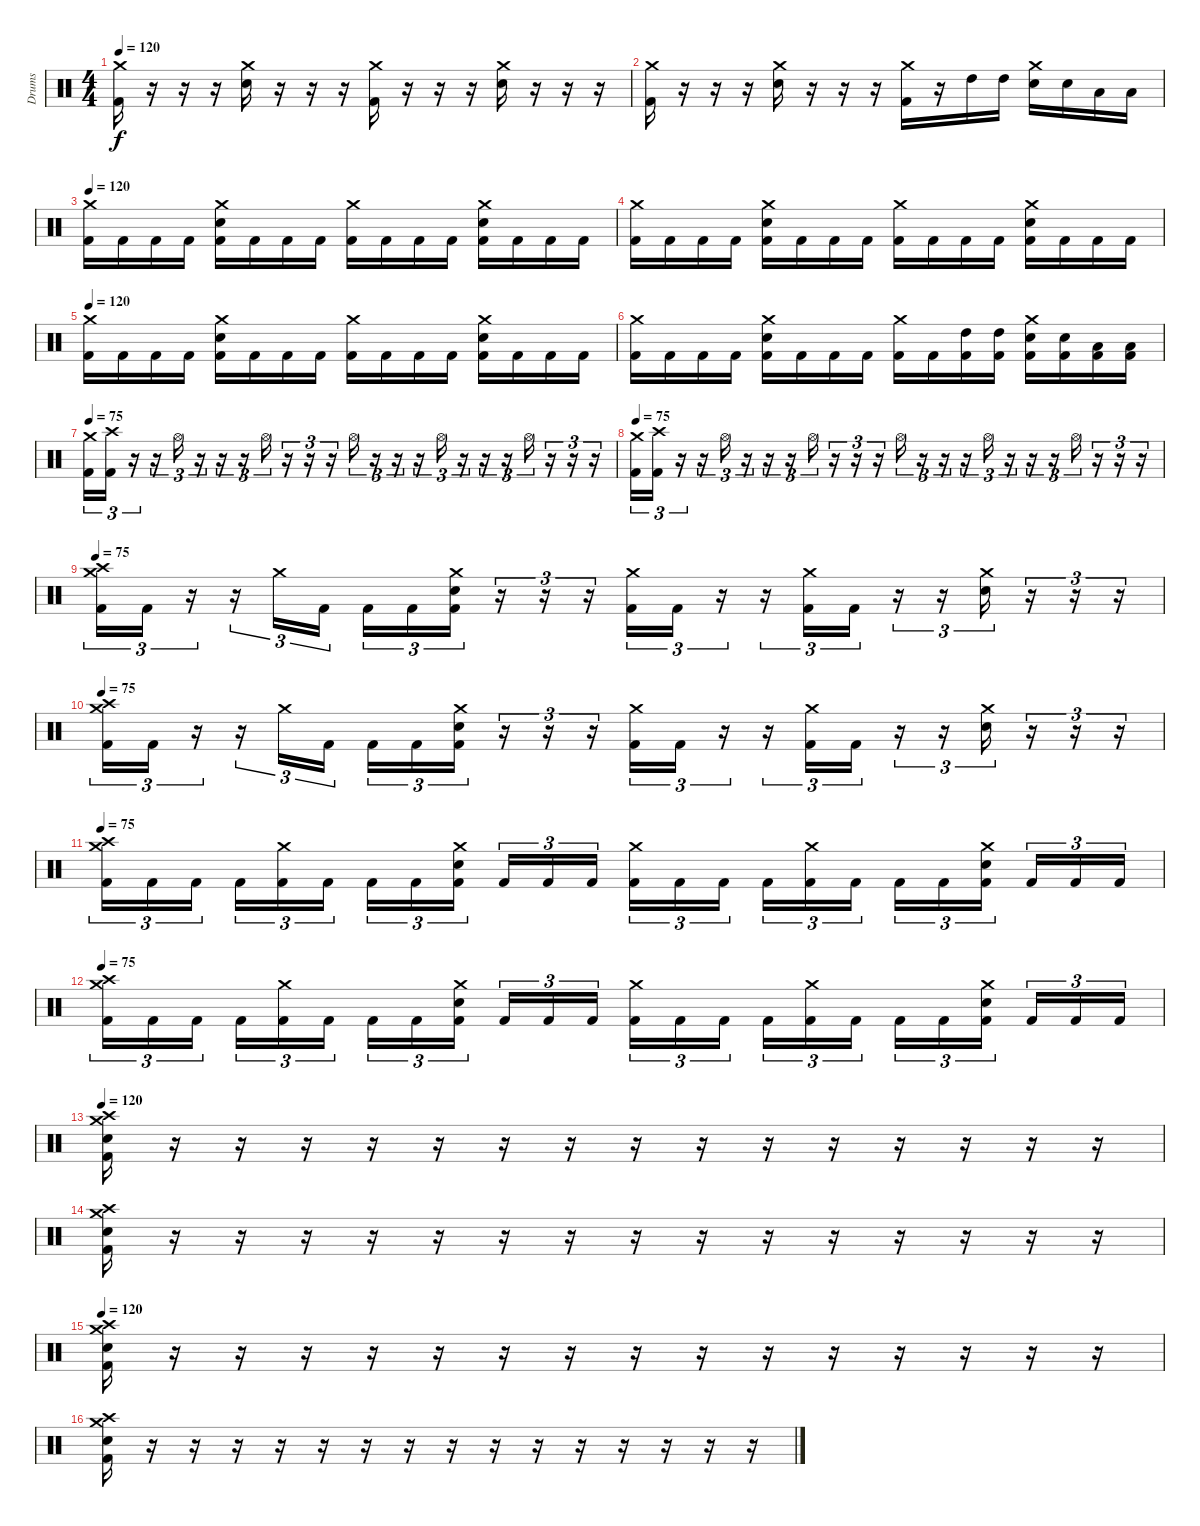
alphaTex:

\track ("Drums" "Drums") {instrument percussion}
\staff {score}
\articulation defaults
\ts (4 4)
\tempo 120
\clef neutral
\ks c
("Crash medium (hit)" "Kick (hit) 2").16{dy f} r.16 r.16 r.16 ("Crash medium (hit)" "Electric Snare (hit)").16 r.16 r.16 r.16 ("Crash medium (hit)" "Kick (hit) 2").16 r.16 r.16 r.16 ("Crash medium (hit)" "Electric Snare (hit)").16 r.16 r.16 r.16 |
("Crash medium (hit)" "Kick (hit) 2").16 r.16 r.16 r.16 ("Crash medium (hit)" "Electric Snare (hit)").16 r.16 r.16 r.16 ("Crash medium (hit)" "Kick (hit) 2").16 r.16 "High Tom (hit)".16 "High Tom (hit)".16 ("Crash medium (hit)" "Electric Snare (hit)").16 "Electric Snare (hit)".16 "Low Tom (hit)".16 "Low Tom (hit)".16 |
\tempo 120
("Crash medium (hit)" "Kick (hit) 2").16 "Kick (hit) 2".16 "Kick (hit) 2".16 "Kick (hit) 2".16 ("Crash medium (hit)" "Electric Snare (hit)" "Kick (hit) 2").16 "Kick (hit) 2".16 "Kick (hit) 2".16 "Kick (hit) 2".16 ("Crash medium (hit)" "Kick (hit) 2").16 "Kick (hit) 2".16 "Kick (hit) 2".16 "Kick (hit) 2".16 ("Crash medium (hit)" "Electric Snare (hit)" "Kick (hit) 2").16 "Kick (hit) 2".16 "Kick (hit) 2".16 "Kick (hit) 2".16 |
("Crash medium (hit)" "Kick (hit) 2").16 "Kick (hit) 2".16 "Kick (hit) 2".16 "Kick (hit) 2".16 ("Crash medium (hit)" "Electric Snare (hit)" "Kick (hit) 2").16 "Kick (hit) 2".16 "Kick (hit) 2".16 "Kick (hit) 2".16 ("Crash medium (hit)" "Kick (hit) 2").16 "Kick (hit) 2".16 "Kick (hit) 2".16 "Kick (hit) 2".16 ("Crash medium (hit)" "Electric Snare (hit)" "Kick (hit) 2").16 "Kick (hit) 2".16 "Kick (hit) 2".16 "Kick (hit) 2".16 |
\tempo 120
("Crash medium (hit)" "Kick (hit) 2").16 "Kick (hit) 2".16 "Kick (hit) 2".16 "Kick (hit) 2".16 ("Crash medium (hit)" "Electric Snare (hit)" "Kick (hit) 2").16 "Kick (hit) 2".16 "Kick (hit) 2".16 "Kick (hit) 2".16 ("Crash medium (hit)" "Kick (hit) 2").16 "Kick (hit) 2".16 "Kick (hit) 2".16 "Kick (hit) 2".16 ("Crash medium (hit)" "Electric Snare (hit)" "Kick (hit) 2").16 "Kick (hit) 2".16 "Kick (hit) 2".16 "Kick (hit) 2".16 |
("Crash medium (hit)" "Kick (hit) 2").16 "Kick (hit) 2".16 "Kick (hit) 2".16 "Kick (hit) 2".16 ("Crash medium (hit)" "Electric Snare (hit)" "Kick (hit) 2").16 "Kick (hit) 2".16 "Kick (hit) 2".16 "Kick (hit) 2".16 ("Crash medium (hit)" "Kick (hit) 2").16 "Kick (hit) 2".16 ("High Tom (hit)" "Kick (hit) 2").16 ("High Tom (hit)" "Kick (hit) 2").16 ("Crash medium (hit)" "Electric Snare (hit)" "Kick (hit) 2").16 ("Electric Snare (hit)" "Kick (hit) 2").16 ("Low Tom (hit)" "Kick (hit) 2").16 ("Low Tom (hit)" "Kick (hit) 2").16 |
\tempo 75
("Crash medium (hit)" "Kick (hit) 2").16{tu (3 2)} ("Crash high (hit)" "Kick (hit) 2").16{tu (3 2)} r.16{tu (3 2)} r.16{tu (3 2)} "Hi-Hat (open)".16{tu (3 2)} r.16{tu (3 2)} r.16{tu (3 2)} r.16{tu (3 2)} "Hi-Hat (open)".16{tu (3 2)} r.16{tu (3 2)} r.16{tu (3 2)} r.16{tu (3 2)} "Hi-Hat (open)".16{tu (3 2)} r.16{tu (3 2)} r.16{tu (3 2)} r.16{tu (3 2)} "Hi-Hat (open)".16{tu (3 2)} r.16{tu (3 2)} r.16{tu (3 2)} r.16{tu (3 2)} "Hi-Hat (open)".16{tu (3 2)} r.16{tu (3 2)} r.16{tu (3 2)} r.16{tu (3 2)} |
\tempo 75
("Crash medium (hit)" "Kick (hit) 2").16{tu (3 2)} ("Crash high (hit)" "Kick (hit) 2").16{tu (3 2)} r.16{tu (3 2)} r.16{tu (3 2)} "Hi-Hat (open)".16{tu (3 2)} r.16{tu (3 2)} r.16{tu (3 2)} r.16{tu (3 2)} "Hi-Hat (open)".16{tu (3 2)} r.16{tu (3 2)} r.16{tu (3 2)} r.16{tu (3 2)} "Hi-Hat (open)".16{tu (3 2)} r.16{tu (3 2)} r.16{tu (3 2)} r.16{tu (3 2)} "Hi-Hat (open)".16{tu (3 2)} r.16{tu (3 2)} r.16{tu (3 2)} r.16{tu (3 2)} "Hi-Hat (open)".16{tu (3 2)} r.16{tu (3 2)} r.16{tu (3 2)} r.16{tu (3 2)} |
\tempo 75
("Crash medium (hit)" "Crash high (hit)" "Kick (hit) 2").16{tu (3 2)} "Kick (hit) 2".16{tu (3 2)} r.16{tu (3 2)} r.16{tu (3 2)} "Crash medium (hit)".16{tu (3 2)} "Kick (hit) 2".16{tu (3 2)} "Kick (hit) 2".16{tu (3 2)} "Kick (hit) 2".16{tu (3 2)} ("Crash medium (hit)" "Electric Snare (hit)" "Kick (hit) 2").16{tu (3 2)} r.16{tu (3 2)} r.16{tu (3 2)} r.16{tu (3 2)} ("Crash medium (hit)" "Kick (hit) 2").16{tu (3 2)} "Kick (hit) 2".16{tu (3 2)} r.16{tu (3 2)} r.16{tu (3 2)} ("Crash medium (hit)" "Kick (hit) 2").16{tu (3 2)} "Kick (hit) 2".16{tu (3 2)} r.16{tu (3 2)} r.16{tu (3 2)} ("Crash medium (hit)" "Electric Snare (hit)").16{tu (3 2)} r.16{tu (3 2)} r.16{tu (3 2)} r.16{tu (3 2)} |
\tempo 75
("Crash medium (hit)" "Crash high (hit)" "Kick (hit) 2").16{tu (3 2)} "Kick (hit) 2".16{tu (3 2)} r.16{tu (3 2)} r.16{tu (3 2)} "Crash medium (hit)".16{tu (3 2)} "Kick (hit) 2".16{tu (3 2)} "Kick (hit) 2".16{tu (3 2)} "Kick (hit) 2".16{tu (3 2)} ("Crash medium (hit)" "Electric Snare (hit)" "Kick (hit) 2").16{tu (3 2)} r.16{tu (3 2)} r.16{tu (3 2)} r.16{tu (3 2)} ("Crash medium (hit)" "Kick (hit) 2").16{tu (3 2)} "Kick (hit) 2".16{tu (3 2)} r.16{tu (3 2)} r.16{tu (3 2)} ("Crash medium (hit)" "Kick (hit) 2").16{tu (3 2)} "Kick (hit) 2".16{tu (3 2)} r.16{tu (3 2)} r.16{tu (3 2)} ("Crash medium (hit)" "Electric Snare (hit)").16{tu (3 2)} r.16{tu (3 2)} r.16{tu (3 2)} r.16{tu (3 2)} |
\tempo 75
("Crash medium (hit)" "Crash high (hit)" "Kick (hit) 2").16{tu (3 2)} "Kick (hit) 2".16{tu (3 2)} "Kick (hit) 2".16{tu (3 2)} "Kick (hit) 2".16{tu (3 2)} ("Crash medium (hit)" "Kick (hit) 2").16{tu (3 2)} "Kick (hit) 2".16{tu (3 2)} "Kick (hit) 2".16{tu (3 2)} "Kick (hit) 2".16{tu (3 2)} ("Crash medium (hit)" "Electric Snare (hit)" "Kick (hit) 2").16{tu (3 2)} "Kick (hit) 2".16{tu (3 2)} "Kick (hit) 2".16{tu (3 2)} "Kick (hit) 2".16{tu (3 2)} ("Crash medium (hit)" "Kick (hit) 2").16{tu (3 2)} "Kick (hit) 2".16{tu (3 2)} "Kick (hit) 2".16{tu (3 2)} "Kick (hit) 2".16{tu (3 2)} ("Crash medium (hit)" "Kick (hit) 2").16{tu (3 2)} "Kick (hit) 2".16{tu (3 2)} "Kick (hit) 2".16{tu (3 2)} "Kick (hit) 2".16{tu (3 2)} ("Crash medium (hit)" "Electric Snare (hit)" "Kick (hit) 2").16{tu (3 2)} "Kick (hit) 2".16{tu (3 2)} "Kick (hit) 2".16{tu (3 2)} "Kick (hit) 2".16{tu (3 2)} |
\tempo 75
("Crash medium (hit)" "Crash high (hit)" "Kick (hit) 2").16{tu (3 2)} "Kick (hit) 2".16{tu (3 2)} "Kick (hit) 2".16{tu (3 2)} "Kick (hit) 2".16{tu (3 2)} ("Crash medium (hit)" "Kick (hit) 2").16{tu (3 2)} "Kick (hit) 2".16{tu (3 2)} "Kick (hit) 2".16{tu (3 2)} "Kick (hit) 2".16{tu (3 2)} ("Crash medium (hit)" "Electric Snare (hit)" "Kick (hit) 2").16{tu (3 2)} "Kick (hit) 2".16{tu (3 2)} "Kick (hit) 2".16{tu (3 2)} "Kick (hit) 2".16{tu (3 2)} ("Crash medium (hit)" "Kick (hit) 2").16{tu (3 2)} "Kick (hit) 2".16{tu (3 2)} "Kick (hit) 2".16{tu (3 2)} "Kick (hit) 2".16{tu (3 2)} ("Crash medium (hit)" "Kick (hit) 2").16{tu (3 2)} "Kick (hit) 2".16{tu (3 2)} "Kick (hit) 2".16{tu (3 2)} "Kick (hit) 2".16{tu (3 2)} ("Crash medium (hit)" "Electric Snare (hit)" "Kick (hit) 2").16{tu (3 2)} "Kick (hit) 2".16{tu (3 2)} "Kick (hit) 2".16{tu (3 2)} "Kick (hit) 2".16{tu (3 2)} |
\tempo 120
("Crash medium (hit)" "Crash high (hit)" "Electric Snare (hit)" "Kick (hit) 2").16 r.16 r.16 r.16 r.16 r.16 r.16 r.16 r.16 r.16 r.16 r.16 r.16 r.16 r.16 r.16 |
("Crash medium (hit)" "Electric Snare (hit)" "Crash high (hit)" "Kick (hit) 2").16 r.16 r.16 r.16 r.16 r.16 r.16 r.16 r.16 r.16 r.16 r.16 r.16 r.16 r.16 r.16 |
\tempo 120
("Crash medium (hit)" "Crash high (hit)" "Electric Snare (hit)" "Kick (hit) 2").16 r.16 r.16 r.16 r.16 r.16 r.16 r.16 r.16 r.16 r.16 r.16 r.16 r.16 r.16 r.16 |
("Crash medium (hit)" "Electric Snare (hit)" "Crash high (hit)" "Kick (hit) 2").16 r.16 r.16 r.16 r.16 r.16 r.16 r.16 r.16 r.16 r.16 r.16 r.16 r.16 r.16 r.16
